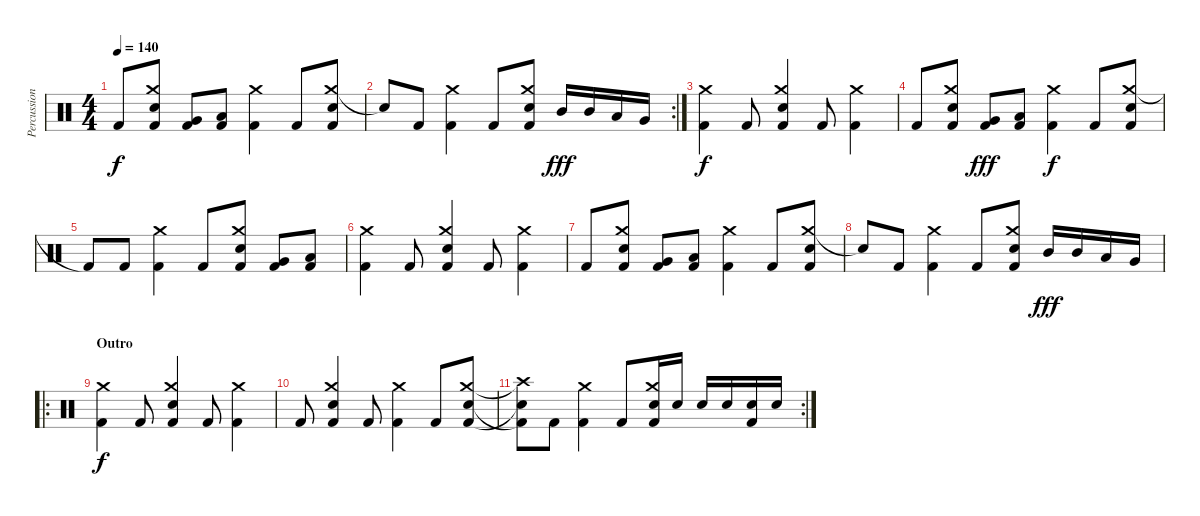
\track ("Percussion" "Percussion") {instrument percussion}
\staff {score}
\articulation defaults
\ts (4 4)
\tempo 140
\clef neutral
\ks c "Kick (hit) 2".8{dy f}
("Crash medium (hit)" "Electric Snare (hit)" "Kick (hit) 2").8 ("Very Low Tom (hit)" "Kick (hit) 2").8 ("Low Floor Tom (hit)" "Kick (hit) 2").8 ("Crash medium (hit)" "Kick (hit) 2").4 "Kick (hit) 2".8 ("Crash medium (hit)" "Electric Snare (hit)" "Kick (hit) 2").8 |
\rc 2 "Snare (hit)"{t}.8 "Kick (hit) 2".8
("Crash medium (hit)" "Kick (hit) 2").4 "Kick (hit) 2".8 ("Crash medium (hit)" "Electric Snare (hit)" "Kick (hit) 2").8 "Mid Tom (hit)".16{dy fff} "Mid Tom (hit)".16 "Low Tom (hit)".16 "Very Low Tom (hit)".16 |
("Crash medium (hit)" "Kick (hit) 2").4{dy f} "Kick (hit) 2".8 ("Crash medium (hit)" "Electric Snare (hit)" "Kick (hit) 2").4 "Kick (hit) 2".8 ("Crash medium (hit)" "Kick (hit) 2").4 |
"Kick (hit) 2".8 ("Crash medium (hit)" "Electric Snare (hit)" "Kick (hit) 2").8 ("Very Low Tom (hit)" "Kick (hit) 2").8{dy fff} ("Low Floor Tom (hit)" "Kick (hit) 2").8 ("Crash medium (hit)" "Kick (hit) 2").4{dy f} "Kick (hit) 2".8 ("Crash medium (hit)" "Electric Snare (hit)" "Kick (hit) 2").8 |
"Kick (hit) 2"{t}.8 "Kick (hit) 2".8 ("Crash medium (hit)" "Kick (hit) 2").4 "Kick (hit) 2".8 ("Crash medium (hit)" "Electric Snare (hit)" "Kick (hit) 2").8 ("Very Low Tom (hit)" "Kick (hit) 2").8 ("Low Floor Tom (hit)" "Kick (hit) 2").8 |
("Crash medium (hit)" "Kick (hit) 2").4 "Kick (hit) 2".8 ("Crash medium (hit)" "Electric Snare (hit)" "Kick (hit) 2").4 "Kick (hit) 2".8 ("Crash medium (hit)" "Kick (hit) 2").4 |
"Kick (hit) 2".8 ("Crash medium (hit)" "Electric Snare (hit)" "Kick (hit) 2").8 ("Very Low Tom (hit)" "Kick (hit) 2").8 ("Low Floor Tom (hit)" "Kick (hit) 2").8 ("Crash medium (hit)" "Kick (hit) 2").4 "Kick (hit) 2".8 ("Crash medium (hit)" "Electric Snare (hit)" "Kick (hit) 2").8 |
"Snare (hit)"{t}.8 "Kick (hit) 2".8 ("Crash medium (hit)" "Kick (hit) 2").4 "Kick (hit) 2".8 ("Crash medium (hit)" "Electric Snare (hit)" "Kick (hit) 2").8 "Mid Tom (hit)".16{dy fff} "Mid Tom (hit)".16 "Low Tom (hit)".16 "Very Low Tom (hit)".16 |
\ro
\section ("" "Outro")
("Crash medium (hit)" "Kick (hit) 2").4{dy f} "Kick (hit) 2".8 ("Crash medium (hit)" "Electric Snare (hit)" "Kick (hit) 2").4 "Kick (hit) 2".8 ("Crash medium (hit)" "Kick (hit) 2").4 |
"Kick (hit) 2".8 ("Electric Snare (hit)" "Crash medium (hit)" "Kick (hit) 2").4 "Kick (hit) 2".8 ("Crash medium (hit)" "Kick (hit) 2").4 "Kick (hit) 2".8 ("Crash medium (hit)" "Electric Snare (hit)" "Kick (hit) 2").8 |
\rc 2
("Crash high (hit)"{t} "Kick (hit) 2"{t} "Snare (hit)"{t}).8 "Kick (hit) 2".8 ("Crash medium (hit)" "Kick (hit) 2").4 "Kick (hit) 2".8 ("Electric Snare (hit)" "Crash medium (hit)" "Kick (hit) 2").16 "Electric Snare (hit)".16 "Electric Snare (hit)".16 "Electric Snare (hit)".16 ("Electric Snare (hit)" "Kick (hit) 2").16 "Electric Snare (hit)".16
